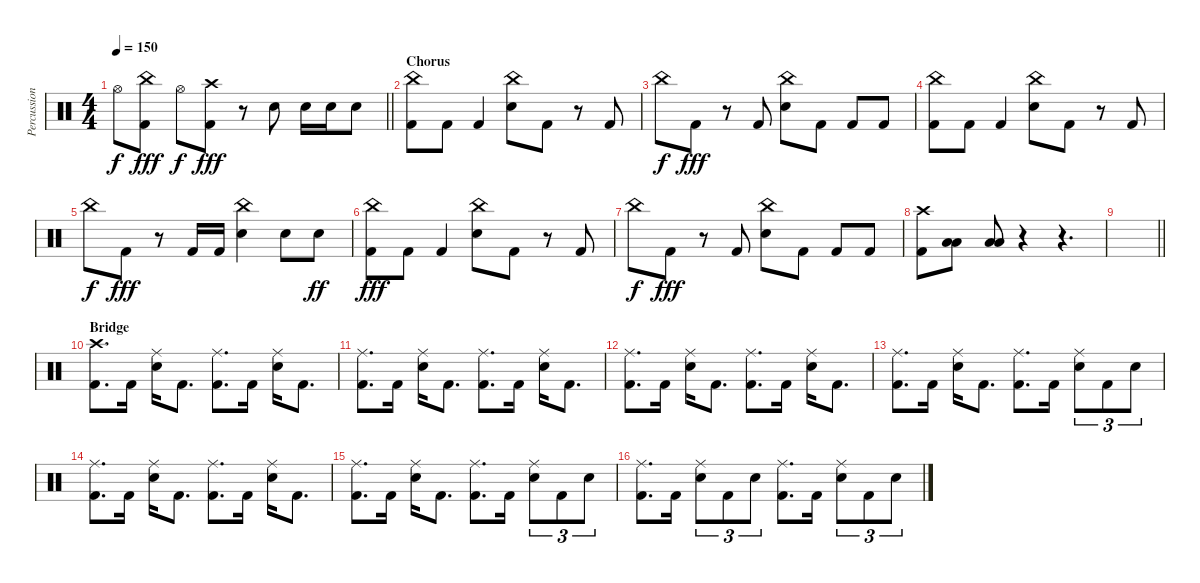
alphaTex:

\track ("Percussion" "Percussion") {instrument percussion}
\staff {score}
\articulation defaults
\ts (4 4)
\tempo 150
\clef neutral
\barLineRight lightlight
\ks c "Hi-Hat (open)".8{dy f}
("China (hit)" "Kick (hit) 2").8{dy fff} "Hi-Hat (open)".8{dy f} ("Kick (hit) 2" "Crash high (hit)").8{dy fff} r.8 "Snare (hit) 2".8 "Snare (hit) 2".16 "Snare (hit) 2".16 "Snare (hit) 2".8 |
\section ("" "Chorus")
("China (hit)" "Kick (hit) 2").8 "Kick (hit) 2".8 "Kick (hit) 2".4 ("China (hit)" "Snare (hit) 2").8 "Kick (hit) 2".8 r.8 "Kick (hit) 2".8 |
"China (hit)".8{dy f} "Kick (hit) 2".8{dy fff} r.8 "Kick (hit) 2".8 ("China (hit)" "Snare (hit) 2").8 "Kick (hit) 2".8 "Kick (hit) 2".8 "Kick (hit) 2".8 |
("China (hit)" "Kick (hit) 2").8 "Kick (hit) 2".8 "Kick (hit) 2".4 ("China (hit)" "Snare (hit) 2").8 "Kick (hit) 2".8 r.8 "Kick (hit) 2".8 |
"China (hit)".8{dy f} "Kick (hit) 2".8{dy fff} r.8 "Kick (hit) 2".16 "Kick (hit) 2".16 ("Snare (hit) 2" "China (hit)").4 "Snare (hit) 2".8 "Snare (hit) 2".8{dy ff} |
("China (hit)" "Kick (hit) 2").8{dy fff} "Kick (hit) 2".8 "Kick (hit) 2".4 ("China (hit)" "Snare (hit) 2").8 "Kick (hit) 2".8 r.8 "Kick (hit) 2".8 |
"China (hit)".8{dy f} "Kick (hit) 2".8{dy fff} r.8 "Kick (hit) 2".8 ("China (hit)" "Snare (hit) 2").8 "Kick (hit) 2".8 "Kick (hit) 2".8 "Kick (hit) 2".8 |
("Kick (hit) 2" "Crash high (hit)").8 ("Low Tom (hit)" "Low Floor Tom (hit)").8 ("Low Tom (hit)" "Low Floor Tom (hit)").8 r.4 r.4{d} |
\barLineRight lightlight
|
\section ("" "Bridge")
("Crash high (hit)" "Kick (hit) 2").8{d} "Kick (hit) 2".16 ("Ride (middle)" "Snare (hit) 2").16 "Kick (hit) 2".8{d} ("Ride (middle)" "Kick (hit) 2").8{d} "Kick (hit) 2".16 ("Ride (middle)" "Snare (hit) 2").16 "Kick (hit) 2".8{d} |
("Kick (hit) 2" "Ride (middle)").8{d} "Kick (hit) 2".16 ("Ride (middle)" "Snare (hit) 2").16 "Kick (hit) 2".8{d} ("Ride (middle)" "Kick (hit) 2").8{d} "Kick (hit) 2".16 ("Ride (middle)" "Snare (hit) 2").16 "Kick (hit) 2".8{d} |
("Kick (hit) 2" "Ride (middle)").8{d} "Kick (hit) 2".16 ("Ride (middle)" "Snare (hit) 2").16 "Kick (hit) 2".8{d} ("Ride (middle)" "Kick (hit) 2").8{d} "Kick (hit) 2".16 ("Ride (middle)" "Snare (hit) 2").16 "Kick (hit) 2".8{d} |
("Kick (hit) 2" "Ride (middle)").8{d} "Kick (hit) 2".16 ("Ride (middle)" "Snare (hit) 2").16 "Kick (hit) 2".8{d} ("Ride (middle)" "Kick (hit) 2").8{d} "Kick (hit) 2".16 ("Ride (middle)" "Snare (hit) 2").8{tu (3 2)} "Kick (hit) 2".8{tu (3 2)} "Snare (hit) 2".8{tu (3 2)} |
("Kick (hit) 2" "Ride (middle)").8{d} "Kick (hit) 2".16 ("Ride (middle)" "Snare (hit) 2").16 "Kick (hit) 2".8{d} ("Ride (middle)" "Kick (hit) 2").8{d} "Kick (hit) 2".16 ("Ride (middle)" "Snare (hit) 2").16 "Kick (hit) 2".8{d} |
("Kick (hit) 2" "Ride (middle)").8{d} "Kick (hit) 2".16 ("Ride (middle)" "Snare (hit) 2").16 "Kick (hit) 2".8{d} ("Ride (middle)" "Kick (hit) 2").8{d} "Kick (hit) 2".16 ("Ride (middle)" "Snare (hit) 2").8{tu (3 2)} "Kick (hit) 2".8{tu (3 2)} "Snare (hit) 2".8{tu (3 2)} |
("Kick (hit) 2" "Ride (middle)").8{d} "Kick (hit) 2".16 ("Ride (middle)" "Snare (hit) 2").8{tu (3 2)} "Kick (hit) 2".8{tu (3 2)} "Snare (hit) 2".8{tu (3 2)} ("Kick (hit) 2" "Ride (middle)").8{d} "Kick (hit) 2".16 ("Ride (middle)" "Snare (hit) 2").8{tu (3 2)} "Kick (hit) 2".8{tu (3 2)} "Snare (hit) 2".8{tu (3 2)}
